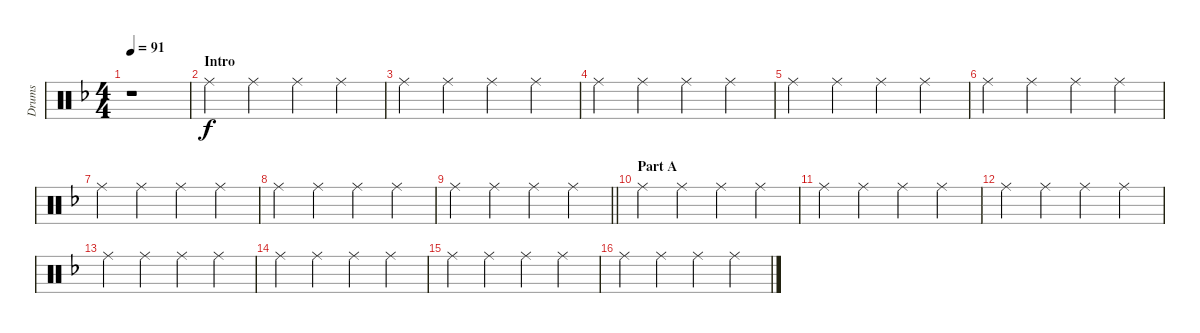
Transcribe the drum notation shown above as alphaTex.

\track ("Drums" "Drums") {instrument percussion}
\staff {score}
\articulation defaults
\ts (4 4)
\tempo 91
\clef neutral
\ks f
r.1{dy f} |
\section ("" "Intro")
"Ride (middle)".4 "Ride (middle)".4 "Ride (middle)".4 "Ride (middle)".4 |
"Ride (middle)".4 "Ride (middle)".4 "Ride (middle)".4 "Ride (middle)".4 |
"Ride (middle)".4 "Ride (middle)".4 "Ride (middle)".4 "Ride (middle)".4 |
"Ride (middle)".4 "Ride (middle)".4 "Ride (middle)".4 "Ride (middle)".4 |
"Ride (middle)".4 "Ride (middle)".4 "Ride (middle)".4 "Ride (middle)".4 |
"Ride (middle)".4 "Ride (middle)".4 "Ride (middle)".4 "Ride (middle)".4 |
"Ride (middle)".4 "Ride (middle)".4 "Ride (middle)".4 "Ride (middle)".4 |
\barLineRight lightlight "Ride (middle)".4 "Ride (middle)".4 "Ride (middle)".4 "Ride (middle)".4
|
\section ("" "Part A")
"Ride (middle)".4 "Ride (middle)".4 "Ride (middle)".4 "Ride (middle)".4 |
"Ride (middle)".4 "Ride (middle)".4 "Ride (middle)".4 "Ride (middle)".4 |
"Ride (middle)".4 "Ride (middle)".4 "Ride (middle)".4 "Ride (middle)".4 |
"Ride (middle)".4 "Ride (middle)".4 "Ride (middle)".4 "Ride (middle)".4 |
"Ride (middle)".4 "Ride (middle)".4 "Ride (middle)".4 "Ride (middle)".4 |
"Ride (middle)".4 "Ride (middle)".4 "Ride (middle)".4 "Ride (middle)".4 |
"Ride (middle)".4 "Ride (middle)".4 "Ride (middle)".4 "Ride (middle)".4
